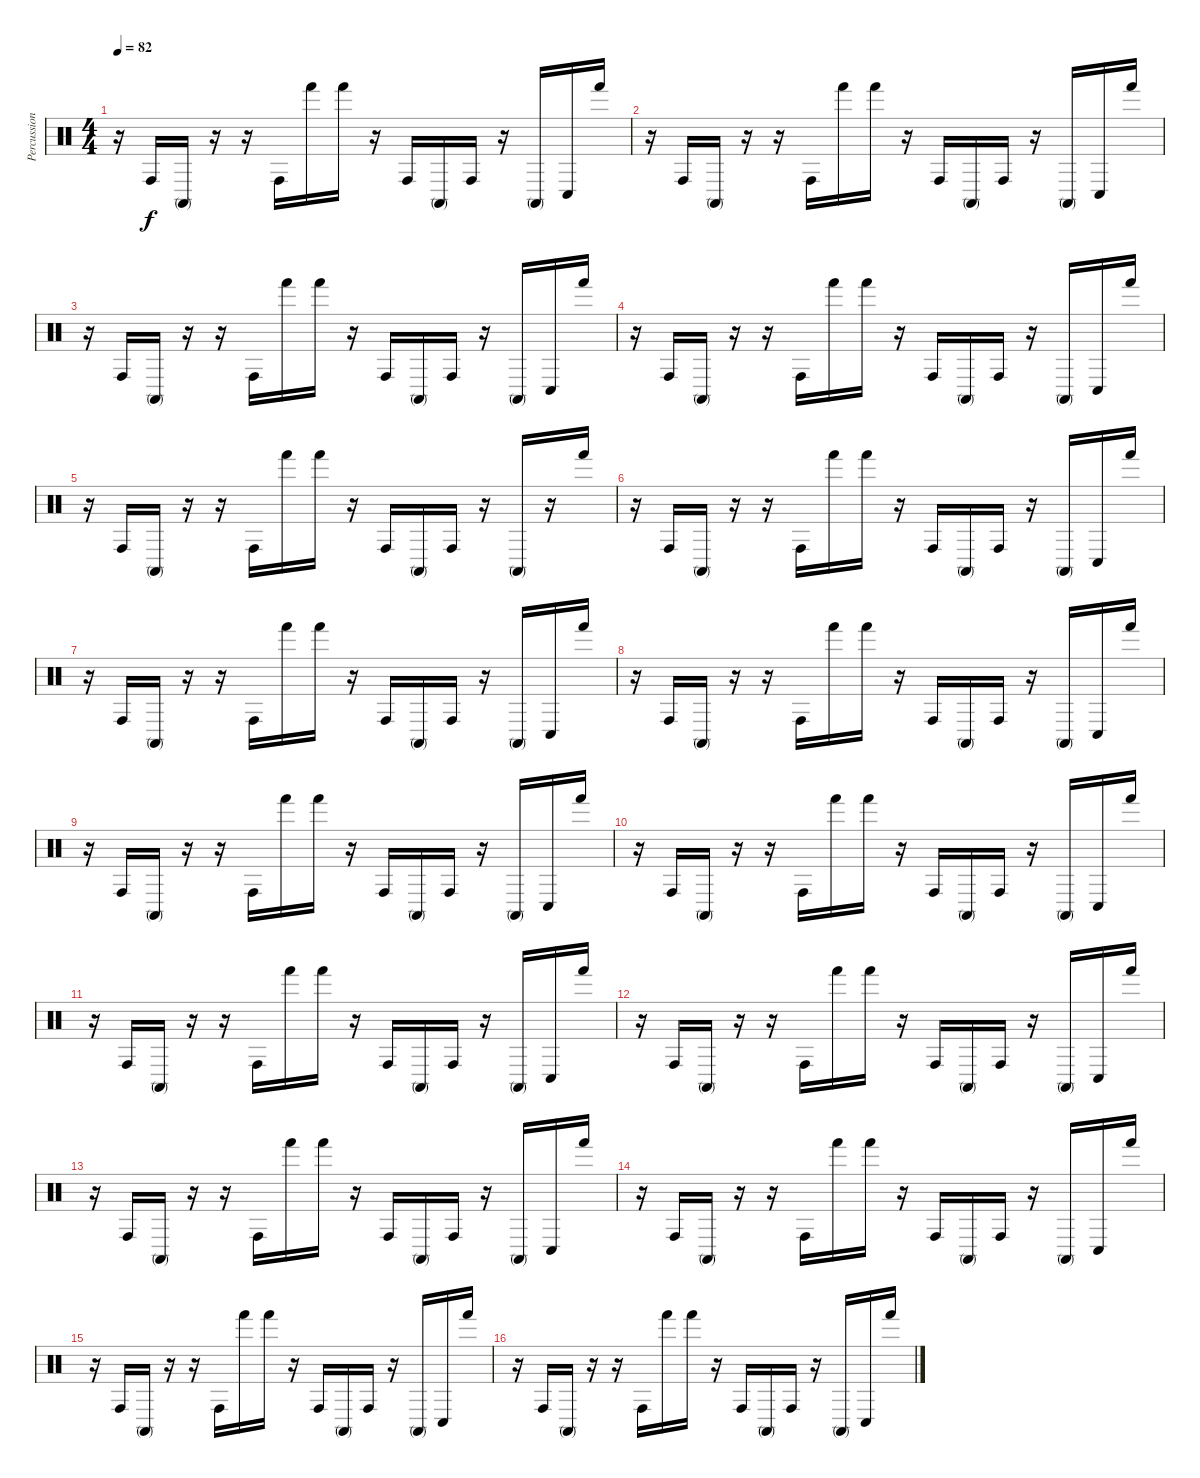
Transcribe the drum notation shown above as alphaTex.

\track ("Percussion" "Percussion") {instrument percussion}
\staff {score}
\articulation defaults
\ts (4 4)
\tempo 82
\clef neutral
\ks c
r.16{dy f} "Conga high (hit)".16 "Conga high (mute)".16 r.16 r.16 "Conga high (hit)".16 "Hand (hit)".16 "Hand (hit)".16 r.16 "Conga high (hit)".16 "Conga high (mute)".16 "Conga high (hit)".16 r.16 "Conga high (mute)".16 "Conga low (hit)".16 "Hand (hit)".16 |
r.16 "Conga high (hit)".16 "Conga high (mute)".16 r.16 r.16 "Conga high (hit)".16 "Hand (hit)".16 "Hand (hit)".16 r.16 "Conga high (hit)".16 "Conga high (mute)".16 "Conga high (hit)".16 r.16 "Conga high (mute)".16 "Conga low (hit)".16 "Hand (hit)".16 |
r.16 "Conga high (hit)".16 "Conga high (mute)".16 r.16 r.16 "Conga high (hit)".16 "Hand (hit)".16 "Hand (hit)".16 r.16 "Conga high (hit)".16 "Conga high (mute)".16 "Conga high (hit)".16 r.16 "Conga high (mute)".16 "Conga low (hit)".16 "Hand (hit)".16 |
r.16 "Conga high (hit)".16 "Conga high (mute)".16 r.16 r.16 "Conga high (hit)".16 "Hand (hit)".16 "Hand (hit)".16 r.16 "Conga high (hit)".16 "Conga high (mute)".16 "Conga high (hit)".16 r.16 "Conga high (mute)".16 "Conga low (hit)".16 "Hand (hit)".16 |
r.16 "Conga high (hit)".16 "Conga high (mute)".16 r.16 r.16 "Conga high (hit)".16 "Hand (hit)".16 "Hand (hit)".16 r.16 "Conga high (hit)".16 "Conga high (mute)".16 "Conga high (hit)".16 r.16 "Conga high (mute)".16 r.16 "Hand (hit)".16 |
r.16 "Conga high (hit)".16 "Conga high (mute)".16 r.16 r.16 "Conga high (hit)".16 "Hand (hit)".16 "Hand (hit)".16 r.16 "Conga high (hit)".16 "Conga high (mute)".16 "Conga high (hit)".16 r.16 "Conga high (mute)".16 "Conga low (hit)".16 "Hand (hit)".16 |
r.16 "Conga high (hit)".16 "Conga high (mute)".16 r.16 r.16 "Conga high (hit)".16 "Hand (hit)".16 "Hand (hit)".16 r.16 "Conga high (hit)".16 "Conga high (mute)".16 "Conga high (hit)".16 r.16 "Conga high (mute)".16 "Conga low (hit)".16 "Hand (hit)".16 |
r.16 "Conga high (hit)".16 "Conga high (mute)".16 r.16 r.16 "Conga high (hit)".16 "Hand (hit)".16 "Hand (hit)".16 r.16 "Conga high (hit)".16 "Conga high (mute)".16 "Conga high (hit)".16 r.16 "Conga high (mute)".16 "Conga low (hit)".16 "Hand (hit)".16 |
r.16 "Conga high (hit)".16 "Conga high (mute)".16 r.16 r.16 "Conga high (hit)".16 "Hand (hit)".16 "Hand (hit)".16 r.16 "Conga high (hit)".16 "Conga high (mute)".16 "Conga high (hit)".16 r.16 "Conga high (mute)".16 "Conga low (hit)".16 "Hand (hit)".16 |
r.16 "Conga high (hit)".16 "Conga high (mute)".16 r.16 r.16 "Conga high (hit)".16 "Hand (hit)".16 "Hand (hit)".16 r.16 "Conga high (hit)".16 "Conga high (mute)".16 "Conga high (hit)".16 r.16 "Conga high (mute)".16 "Conga low (hit)".16 "Hand (hit)".16 |
r.16 "Conga high (hit)".16 "Conga high (mute)".16 r.16 r.16 "Conga high (hit)".16 "Hand (hit)".16 "Hand (hit)".16 r.16 "Conga high (hit)".16 "Conga high (mute)".16 "Conga high (hit)".16 r.16 "Conga high (mute)".16 "Conga low (hit)".16 "Hand (hit)".16 |
r.16 "Conga high (hit)".16 "Conga high (mute)".16 r.16 r.16 "Conga high (hit)".16 "Hand (hit)".16 "Hand (hit)".16 r.16 "Conga high (hit)".16 "Conga high (mute)".16 "Conga high (hit)".16 r.16 "Conga high (mute)".16 "Conga low (hit)".16 "Hand (hit)".16 |
r.16 "Conga high (hit)".16 "Conga high (mute)".16 r.16 r.16 "Conga high (hit)".16 "Hand (hit)".16 "Hand (hit)".16 r.16 "Conga high (hit)".16 "Conga high (mute)".16 "Conga high (hit)".16 r.16 "Conga high (mute)".16 "Conga low (hit)".16 "Hand (hit)".16 |
r.16 "Conga high (hit)".16 "Conga high (mute)".16 r.16 r.16 "Conga high (hit)".16 "Hand (hit)".16 "Hand (hit)".16 r.16 "Conga high (hit)".16 "Conga high (mute)".16 "Conga high (hit)".16 r.16 "Conga high (mute)".16 "Conga low (hit)".16 "Hand (hit)".16 |
r.16 "Conga high (hit)".16 "Conga high (mute)".16 r.16 r.16 "Conga high (hit)".16 "Hand (hit)".16 "Hand (hit)".16 r.16 "Conga high (hit)".16 "Conga high (mute)".16 "Conga high (hit)".16 r.16 "Conga high (mute)".16 "Conga low (hit)".16 "Hand (hit)".16 |
r.16 "Conga high (hit)".16 "Conga high (mute)".16 r.16 r.16 "Conga high (hit)".16 "Hand (hit)".16 "Hand (hit)".16 r.16 "Conga high (hit)".16 "Conga high (mute)".16 "Conga high (hit)".16 r.16 "Conga high (mute)".16 "Conga low (hit)".16 "Hand (hit)".16
